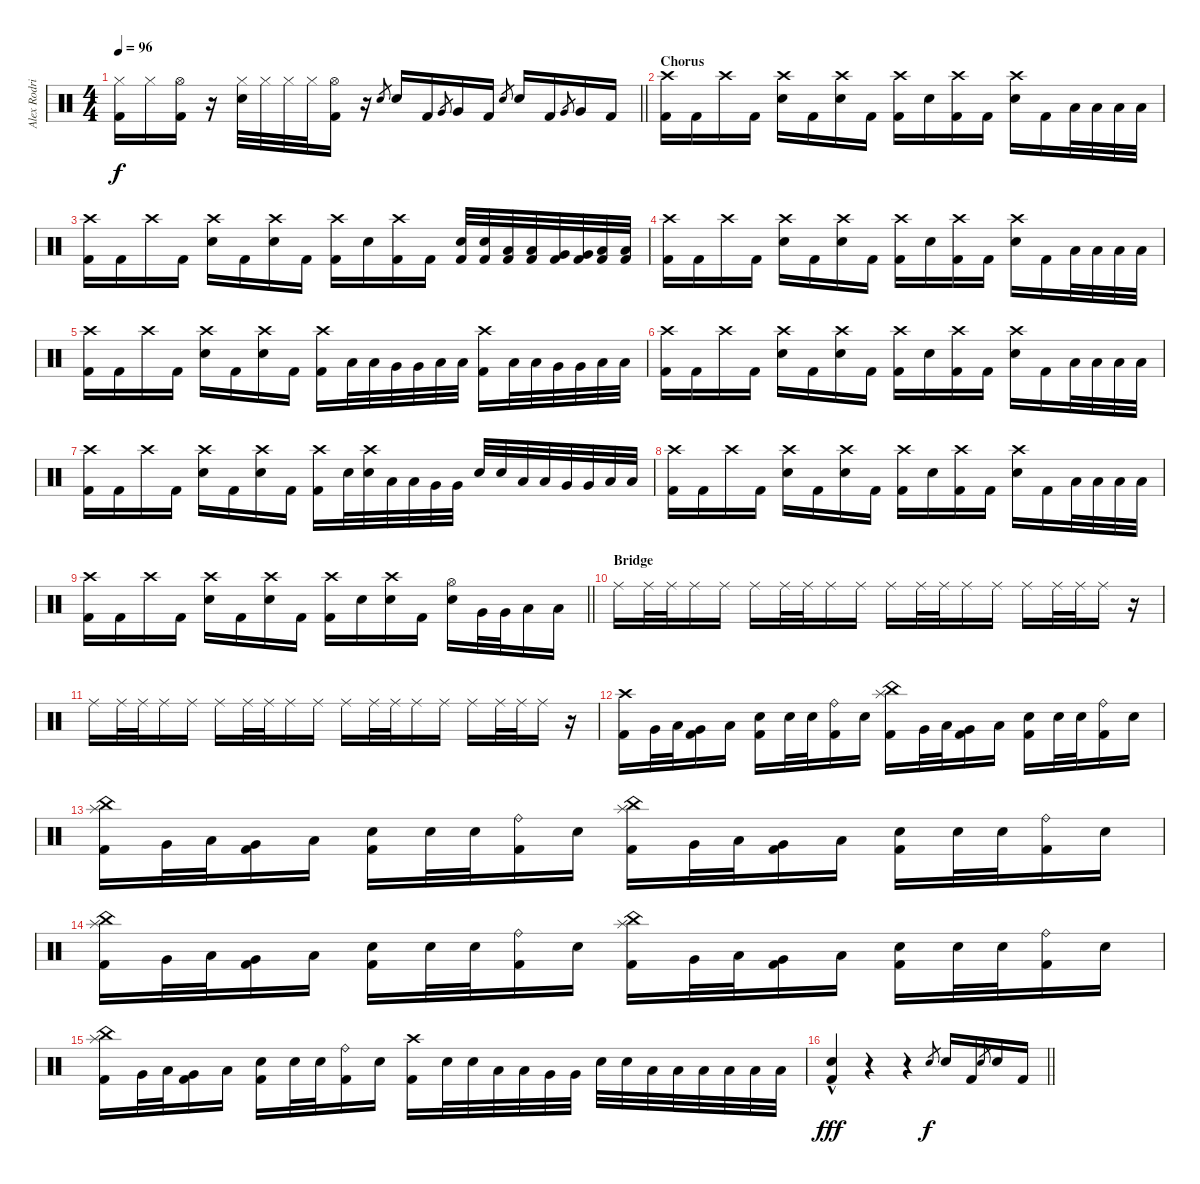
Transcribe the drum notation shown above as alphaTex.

\track ("Alex Rodriguez" "Alex Rodri") {instrument percussion}
\staff {score}
\articulation defaults
\ts (4 4)
\tempo 96
\clef neutral
\barLineRight lightlight
\ks c
("Hi-Hat (closed)" "Kick (hit) 2").16{dy f} "Hi-Hat (closed)".16 ("Hi-Hat (open)" "Kick (hit) 2").16 r.16 ("Hi-Hat (closed)" "Electric Snare (hit)").32 "Hi-Hat (closed)".32 "Hi-Hat (closed)".32 "Hi-Hat (closed)".32 ("Hi-Hat (open)" "Kick (hit) 2").16 r.16 "Electric Snare (hit)".8{gr} "Electric Snare (hit)".16 "Kick (hit) 2".16 "Very Low Tom (hit)".8{gr} "Very Low Tom (hit)".16 "Kick (hit) 2".16 "Electric Snare (hit)".8{gr} "Electric Snare (hit)".16 "Kick (hit) 2".16 "Very Low Tom (hit)".8{gr} "Very Low Tom (hit)".16 "Kick (hit) 2".16 |
\section ("" "Chorus")
("Crash high (hit)" "Kick (hit) 2").16 "Kick (hit) 2".16 "Crash high (hit)".16 "Kick (hit) 2".16 ("Crash high (hit)" "Electric Snare (hit)").16 "Kick (hit) 2".16 ("Crash high (hit)" "Electric Snare (hit)").16 "Kick (hit) 2".16 ("Crash high (hit)" "Kick (hit) 2").16 "Electric Snare (hit)".16 ("Crash high (hit)" "Kick (hit) 2").16 "Kick (hit) 2".16 ("Crash high (hit)" "Electric Snare (hit)").16 "Kick (hit) 2".16 "Low Floor Tom (hit)".32 "Low Floor Tom (hit)".32 "Low Floor Tom (hit)".32 "Low Floor Tom (hit)".32 |
("Crash high (hit)" "Kick (hit) 2").16 "Kick (hit) 2".16 "Crash high (hit)".16 "Kick (hit) 2".16 ("Crash high (hit)" "Electric Snare (hit)").16 "Kick (hit) 2".16 ("Crash high (hit)" "Electric Snare (hit)").16 "Kick (hit) 2".16 ("Crash high (hit)" "Kick (hit) 2").16 "Electric Snare (hit)".16 ("Crash high (hit)" "Kick (hit) 2").16 "Kick (hit) 2".16 ("Electric Snare (hit)" "Kick (hit) 2").32 ("Electric Snare (hit)" "Kick (hit) 2").32 ("Low Tom (hit)" "Kick (hit) 2").32 ("Low Tom (hit)" "Kick (hit) 2").32 ("Very Low Tom (hit)" "Kick (hit) 2").32 ("Very Low Tom (hit)" "Kick (hit) 2").32 ("Low Floor Tom (hit)" "Kick (hit) 2").32 ("Low Floor Tom (hit)" "Kick (hit) 2").32 |
("Crash high (hit)" "Kick (hit) 2").16 "Kick (hit) 2".16 "Crash high (hit)".16 "Kick (hit) 2".16 ("Crash high (hit)" "Electric Snare (hit)").16 "Kick (hit) 2".16 ("Crash high (hit)" "Electric Snare (hit)").16 "Kick (hit) 2".16 ("Crash high (hit)" "Kick (hit) 2").16 "Electric Snare (hit)".16 ("Crash high (hit)" "Kick (hit) 2").16 "Kick (hit) 2".16 ("Crash high (hit)" "Electric Snare (hit)").16 "Kick (hit) 2".16 "Low Floor Tom (hit)".32 "Low Floor Tom (hit)".32 "Low Floor Tom (hit)".32 "Low Floor Tom (hit)".32 |
("Crash high (hit)" "Kick (hit) 2").16 "Kick (hit) 2".16 "Crash high (hit)".16 "Kick (hit) 2".16 ("Crash high (hit)" "Electric Snare (hit)").16 "Kick (hit) 2".16 ("Crash high (hit)" "Electric Snare (hit)").16 "Kick (hit) 2".16 ("Crash high (hit)" "Kick (hit) 2").16 "Low Tom (hit)".32 "Low Tom (hit)".32 "Very Low Tom (hit)".32 "Very Low Tom (hit)".32 "Low Floor Tom (hit)".32 "Low Floor Tom (hit)".32 ("Crash high (hit)" "Kick (hit) 2").16 "Low Tom (hit)".32 "Low Tom (hit)".32 "Very Low Tom (hit)".32 "Very Low Tom (hit)".32 "Low Floor Tom (hit)".32 "Low Floor Tom (hit)".32 |
("Crash high (hit)" "Kick (hit) 2").16 "Kick (hit) 2".16 "Crash high (hit)".16 "Kick (hit) 2".16 ("Crash high (hit)" "Electric Snare (hit)").16 "Kick (hit) 2".16 ("Crash high (hit)" "Electric Snare (hit)").16 "Kick (hit) 2".16 ("Crash high (hit)" "Kick (hit) 2").16 "Electric Snare (hit)".16 ("Crash high (hit)" "Kick (hit) 2").16 "Kick (hit) 2".16 ("Crash high (hit)" "Electric Snare (hit)").16 "Kick (hit) 2".16 "Low Floor Tom (hit)".32 "Low Floor Tom (hit)".32 "Low Floor Tom (hit)".32 "Low Floor Tom (hit)".32 |
("Crash high (hit)" "Kick (hit) 2").16 "Kick (hit) 2".16 "Crash high (hit)".16 "Kick (hit) 2".16 ("Crash high (hit)" "Electric Snare (hit)").16 "Kick (hit) 2".16 ("Crash high (hit)" "Electric Snare (hit)").16 "Kick (hit) 2".16 ("Crash high (hit)" "Kick (hit) 2").16 "Electric Snare (hit)".32 ("Crash high (hit)" "Electric Snare (hit)").32 "Low Tom (hit)".32 "Low Tom (hit)".32 "Very Low Tom (hit)".32 "Very Low Tom (hit)".32 "Electric Snare (hit)".32 "Electric Snare (hit)".32 "Low Tom (hit)".32 "Low Tom (hit)".32 "Very Low Tom (hit)".32 "Very Low Tom (hit)".32 "Low Floor Tom (hit)".32 "Low Floor Tom (hit)".32 |
("Crash high (hit)" "Kick (hit) 2").16 "Kick (hit) 2".16 "Crash high (hit)".16 "Kick (hit) 2".16 ("Crash high (hit)" "Electric Snare (hit)").16 "Kick (hit) 2".16 ("Crash high (hit)" "Electric Snare (hit)").16 "Kick (hit) 2".16 ("Crash high (hit)" "Kick (hit) 2").16 "Electric Snare (hit)".16 ("Crash high (hit)" "Kick (hit) 2").16 "Kick (hit) 2".16 ("Crash high (hit)" "Electric Snare (hit)").16 "Kick (hit) 2".16 "Low Floor Tom (hit)".32 "Low Floor Tom (hit)".32 "Low Floor Tom (hit)".32 "Low Floor Tom (hit)".32 |
\barLineRight lightlight
("Crash high (hit)" "Kick (hit) 2").16 "Kick (hit) 2".16 "Crash high (hit)".16 "Kick (hit) 2".16 ("Crash high (hit)" "Electric Snare (hit)").16 "Kick (hit) 2".16 ("Crash high (hit)" "Electric Snare (hit)").16 "Kick (hit) 2".16 ("Crash high (hit)" "Kick (hit) 2").16 "Electric Snare (hit)".16 ("Crash high (hit)" "Electric Snare (hit)").16 "Kick (hit) 2".16 ("Hi-Hat (open)" "Electric Snare (hit)").16 "Very Low Tom (hit)".32 "Very Low Tom (hit)".32 "Low Floor Tom (hit)".16 "Low Floor Tom (hit)".16 |
\section ("" "Bridge")
"Ride (middle)".16 "Ride (middle)".32 "Ride (middle)".32 "Ride (middle)".16 "Ride (middle)".16 "Ride (middle)".16 "Ride (middle)".32 "Ride (middle)".32 "Ride (middle)".16 "Ride (middle)".16 "Ride (middle)".16 "Ride (middle)".32 "Ride (middle)".32 "Ride (middle)".16 "Ride (middle)".16 "Ride (middle)".16 "Ride (middle)".32 "Ride (middle)".32 "Ride (middle)".16 r.16 |
"Ride (middle)".16 "Ride (middle)".32 "Ride (middle)".32 "Ride (middle)".16 "Ride (middle)".16 "Ride (middle)".16 "Ride (middle)".32 "Ride (middle)".32 "Ride (middle)".16 "Ride (middle)".16 "Ride (middle)".16 "Ride (middle)".32 "Ride (middle)".32 "Ride (middle)".16 "Ride (middle)".16 "Ride (middle)".16 "Ride (middle)".32 "Ride (middle)".32 "Ride (middle)".16 r.16 |
("Crash high (hit)" "Kick (hit) 2").16 "Very Low Tom (hit)".32 "Low Floor Tom (hit)".32 ("Very Low Tom (hit)" "Kick (hit) 2").16 "Low Floor Tom (hit)".16 ("Electric Snare (hit)" "Kick (hit) 2").16 "Electric Snare (hit)".32 "Electric Snare (hit)".32 ("Ride (bell)" "Kick (hit) 2").16 "Electric Snare (hit)".16 ("Splash (hit)" "China (hit)" "Kick (hit) 2").16 "Very Low Tom (hit)".32 "Low Floor Tom (hit)".32 ("Very Low Tom (hit)" "Kick (hit) 2").16 "Low Floor Tom (hit)".16 ("Electric Snare (hit)" "Kick (hit) 2").16 "Electric Snare (hit)".32 "Electric Snare (hit)".32 ("Ride (bell)" "Kick (hit) 2").16 "Electric Snare (hit)".16 |
("China (hit)" "Splash (hit)" "Kick (hit) 2").16 "Very Low Tom (hit)".32 "Low Floor Tom (hit)".32 ("Very Low Tom (hit)" "Kick (hit) 2").16 "Low Floor Tom (hit)".16 ("Electric Snare (hit)" "Kick (hit) 2").16 "Electric Snare (hit)".32 "Electric Snare (hit)".32 ("Ride (bell)" "Kick (hit) 2").16 "Electric Snare (hit)".16 ("Splash (hit)" "China (hit)" "Kick (hit) 2").16 "Very Low Tom (hit)".32 "Low Floor Tom (hit)".32 ("Very Low Tom (hit)" "Kick (hit) 2").16 "Low Floor Tom (hit)".16 ("Electric Snare (hit)" "Kick (hit) 2").16 "Electric Snare (hit)".32 "Electric Snare (hit)".32 ("Ride (bell)" "Kick (hit) 2").16 "Electric Snare (hit)".16 |
("China (hit)" "Splash (hit)" "Kick (hit) 2").16 "Very Low Tom (hit)".32 "Low Floor Tom (hit)".32 ("Very Low Tom (hit)" "Kick (hit) 2").16 "Low Floor Tom (hit)".16 ("Electric Snare (hit)" "Kick (hit) 2").16 "Electric Snare (hit)".32 "Electric Snare (hit)".32 ("Ride (bell)" "Kick (hit) 2").16 "Electric Snare (hit)".16 ("Splash (hit)" "China (hit)" "Kick (hit) 2").16 "Very Low Tom (hit)".32 "Low Floor Tom (hit)".32 ("Very Low Tom (hit)" "Kick (hit) 2").16 "Low Floor Tom (hit)".16 ("Electric Snare (hit)" "Kick (hit) 2").16 "Electric Snare (hit)".32 "Electric Snare (hit)".32 ("Ride (bell)" "Kick (hit) 2").16 "Electric Snare (hit)".16 |
("China (hit)" "Splash (hit)" "Kick (hit) 2").16 "Very Low Tom (hit)".32 "Low Floor Tom (hit)".32 ("Very Low Tom (hit)" "Kick (hit) 2").16 "Low Floor Tom (hit)".16 ("Electric Snare (hit)" "Kick (hit) 2").16 "Electric Snare (hit)".32 "Electric Snare (hit)".32 ("Ride (bell)" "Kick (hit) 2").16 "Electric Snare (hit)".16 ("Crash high (hit)" "Kick (hit) 2").16 "Electric Snare (hit)".32 "Electric Snare (hit)".32 "Low Tom (hit)".32 "Low Tom (hit)".32 "Very Low Tom (hit)".32 "Very Low Tom (hit)".32 "Electric Snare (hit)".32 "Electric Snare (hit)".32 "Low Tom (hit)".32 "Low Tom (hit)".32 "Low Tom (hit)".32 "Low Tom (hit)".32 "Low Tom (hit)".32 "Low Tom (hit)".32 |
\barLineRight lightlight
("Electric Snare (hit)"{hac} "Kick (hit) 2"{hac}).4{dy fff} r.4 r.4 "Electric Snare (hit)".8{gr dy f} "Electric Snare (hit)".16 "Kick (hit) 2".16 "Electric Snare (hit)".8{gr} "Electric Snare (hit)".16 "Kick (hit) 2".16
